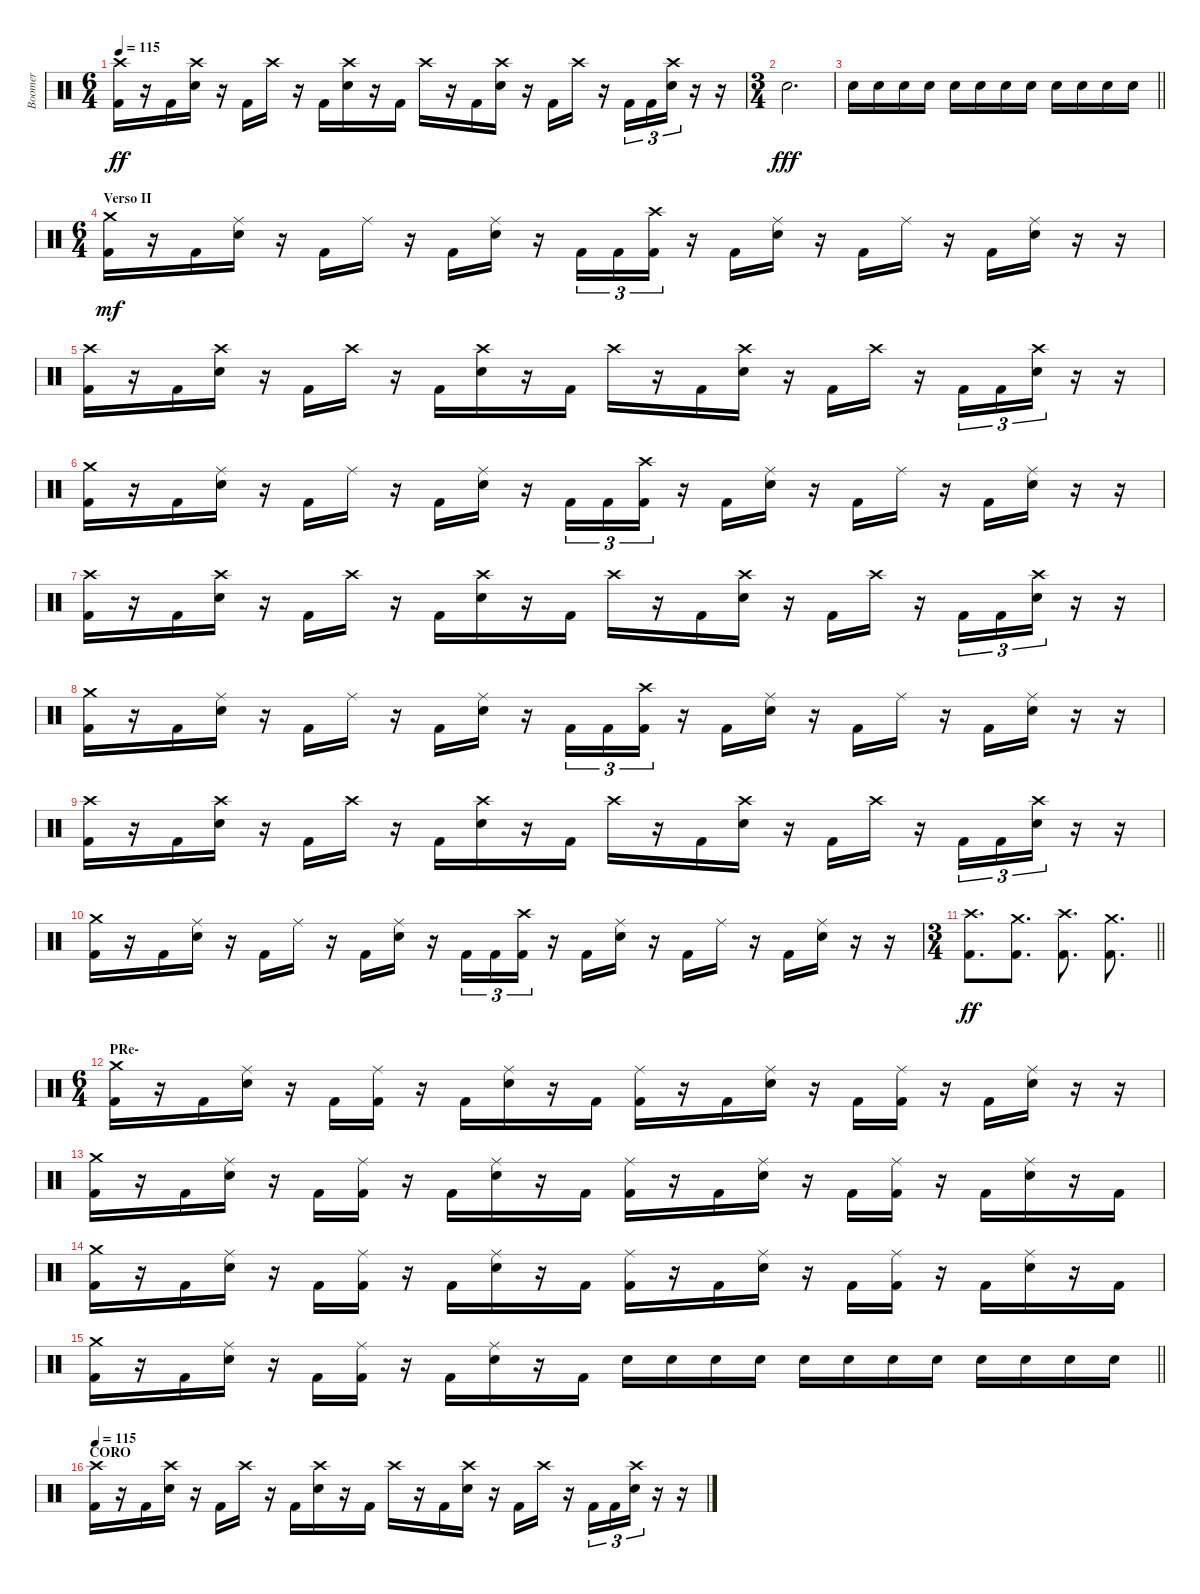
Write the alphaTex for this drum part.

\track ("Boomer" "Boomer") {instrument percussion}
\staff {score}
\articulation defaults
\ts (6 4)
\tempo 115
\clef neutral
\ks c
("Crash high (hit)" "Kick (hit) 2").16{dy ff} r.16 "Kick (hit) 2".16 ("Crash high (hit)" "Electric Snare (hit)").16 r.16 "Kick (hit) 2".16 "Crash high (hit)".16 r.16 "Kick (hit) 2".16 ("Crash high (hit)" "Electric Snare (hit)").16 r.16 "Kick (hit) 2".16 "Crash high (hit)".16 r.16 "Kick (hit) 2".16 ("Crash high (hit)" "Electric Snare (hit)").16 r.16 "Kick (hit) 2".16 "Crash high (hit)".16 r.16 "Kick (hit) 2".16{tu (3 2)} "Kick (hit) 2".16{tu (3 2)} ("Crash high (hit)" "Electric Snare (hit)").16{tu (3 2)} r.16 r.16 |
\ts (3 4)
"Electric Snare (hit)".2{d dy fff} |
\barLineRight lightlight "Electric Snare (hit)".16 "Electric Snare (hit)".16 "Electric Snare (hit)".16 "Electric Snare (hit)".16 "Electric Snare (hit)".16 "Electric Snare (hit)".16 "Electric Snare (hit)".16 "Electric Snare (hit)".16 "Electric Snare (hit)".16 "Electric Snare (hit)".16 "Electric Snare (hit)".16 "Electric Snare (hit)".16
|
\ts (6 4)
\section ("" "Verso II")
("Crash medium (hit)" "Kick (hit) 2").16{dy mf} r.16 "Kick (hit) 2".16 ("Ride (middle)" "Electric Snare (hit)").16 r.16 "Kick (hit) 2".16 "Ride (middle)".16 r.16 "Kick (hit) 2".16 ("Ride (middle)" "Electric Snare (hit)").16 r.16 "Kick (hit) 2".16{tu (3 2)} "Kick (hit) 2".16{tu (3 2)} ("Crash high (hit)" "Kick (hit) 2").16{tu (3 2)} r.16 "Kick (hit) 2".16 ("Ride (middle)" "Electric Snare (hit)").16 r.16 "Kick (hit) 2".16 "Ride (middle)".16 r.16 "Kick (hit) 2".16 ("Ride (middle)" "Electric Snare (hit)").16 r.16 r.16 |
("Crash high (hit)" "Kick (hit) 2").16 r.16 "Kick (hit) 2".16 ("Crash high (hit)" "Electric Snare (hit)").16 r.16 "Kick (hit) 2".16 "Crash high (hit)".16 r.16 "Kick (hit) 2".16 ("Crash high (hit)" "Electric Snare (hit)").16 r.16 "Kick (hit) 2".16 "Crash high (hit)".16 r.16 "Kick (hit) 2".16 ("Crash high (hit)" "Electric Snare (hit)").16 r.16 "Kick (hit) 2".16 "Crash high (hit)".16 r.16 "Kick (hit) 2".16{tu (3 2)} "Kick (hit) 2".16{tu (3 2)} ("Crash high (hit)" "Electric Snare (hit)").16{tu (3 2)} r.16 r.16 |
("Crash medium (hit)" "Kick (hit) 2").16 r.16 "Kick (hit) 2".16 ("Ride (middle)" "Electric Snare (hit)").16 r.16 "Kick (hit) 2".16 "Ride (middle)".16 r.16 "Kick (hit) 2".16 ("Ride (middle)" "Electric Snare (hit)").16 r.16 "Kick (hit) 2".16{tu (3 2)} "Kick (hit) 2".16{tu (3 2)} ("Crash high (hit)" "Kick (hit) 2").16{tu (3 2)} r.16 "Kick (hit) 2".16 ("Ride (middle)" "Electric Snare (hit)").16 r.16 "Kick (hit) 2".16 "Ride (middle)".16 r.16 "Kick (hit) 2".16 ("Ride (middle)" "Electric Snare (hit)").16 r.16 r.16 |
("Crash high (hit)" "Kick (hit) 2").16 r.16 "Kick (hit) 2".16 ("Crash high (hit)" "Electric Snare (hit)").16 r.16 "Kick (hit) 2".16 "Crash high (hit)".16 r.16 "Kick (hit) 2".16 ("Crash high (hit)" "Electric Snare (hit)").16 r.16 "Kick (hit) 2".16 "Crash high (hit)".16 r.16 "Kick (hit) 2".16 ("Crash high (hit)" "Electric Snare (hit)").16 r.16 "Kick (hit) 2".16 "Crash high (hit)".16 r.16 "Kick (hit) 2".16{tu (3 2)} "Kick (hit) 2".16{tu (3 2)} ("Crash high (hit)" "Electric Snare (hit)").16{tu (3 2)} r.16 r.16 |
("Crash medium (hit)" "Kick (hit) 2").16 r.16 "Kick (hit) 2".16 ("Ride (middle)" "Electric Snare (hit)").16 r.16 "Kick (hit) 2".16 "Ride (middle)".16 r.16 "Kick (hit) 2".16 ("Ride (middle)" "Electric Snare (hit)").16 r.16 "Kick (hit) 2".16{tu (3 2)} "Kick (hit) 2".16{tu (3 2)} ("Crash high (hit)" "Kick (hit) 2").16{tu (3 2)} r.16 "Kick (hit) 2".16 ("Ride (middle)" "Electric Snare (hit)").16 r.16 "Kick (hit) 2".16 "Ride (middle)".16 r.16 "Kick (hit) 2".16 ("Ride (middle)" "Electric Snare (hit)").16 r.16 r.16 |
("Crash high (hit)" "Kick (hit) 2").16 r.16 "Kick (hit) 2".16 ("Crash high (hit)" "Electric Snare (hit)").16 r.16 "Kick (hit) 2".16 "Crash high (hit)".16 r.16 "Kick (hit) 2".16 ("Crash high (hit)" "Electric Snare (hit)").16 r.16 "Kick (hit) 2".16 "Crash high (hit)".16 r.16 "Kick (hit) 2".16 ("Crash high (hit)" "Electric Snare (hit)").16 r.16 "Kick (hit) 2".16 "Crash high (hit)".16 r.16 "Kick (hit) 2".16{tu (3 2)} "Kick (hit) 2".16{tu (3 2)} ("Crash high (hit)" "Electric Snare (hit)").16{tu (3 2)} r.16 r.16 |
("Crash medium (hit)" "Kick (hit) 2").16 r.16 "Kick (hit) 2".16 ("Ride (middle)" "Electric Snare (hit)").16 r.16 "Kick (hit) 2".16 "Ride (middle)".16 r.16 "Kick (hit) 2".16 ("Ride (middle)" "Electric Snare (hit)").16 r.16 "Kick (hit) 2".16{tu (3 2)} "Kick (hit) 2".16{tu (3 2)} ("Crash high (hit)" "Kick (hit) 2").16{tu (3 2)} r.16 "Kick (hit) 2".16 ("Ride (middle)" "Electric Snare (hit)").16 r.16 "Kick (hit) 2".16 "Ride (middle)".16 r.16 "Kick (hit) 2".16 ("Ride (middle)" "Electric Snare (hit)").16 r.16 r.16 |
\ts (3 4)
\barLineRight lightlight
("Crash high (hit)" "Kick (hit) 2").8{d dy ff} ("Crash medium (hit)" "Kick (hit) 2").8{d} ("Crash high (hit)" "Kick (hit) 2").8{d} ("Crash medium (hit)" "Kick (hit) 2").8{d} |
\ts (6 4)
\section ("" "PRe-")
("Crash medium (hit)" "Kick (hit) 2").16 r.16 "Kick (hit) 2".16 ("Ride (middle)" "Electric Snare (hit)").16 r.16 "Kick (hit) 2".16 ("Ride (middle)" "Kick (hit) 2").16 r.16 "Kick (hit) 2".16 ("Ride (middle)" "Electric Snare (hit)").16 r.16 "Kick (hit) 2".16 ("Ride (middle)" "Kick (hit) 2").16 r.16 "Kick (hit) 2".16 ("Ride (middle)" "Electric Snare (hit)").16 r.16 "Kick (hit) 2".16 ("Ride (middle)" "Kick (hit) 2").16 r.16 "Kick (hit) 2".16 ("Ride (middle)" "Electric Snare (hit)").16 r.16 r.16 |
("Crash medium (hit)" "Kick (hit) 2").16 r.16 "Kick (hit) 2".16 ("Ride (middle)" "Electric Snare (hit)").16 r.16 "Kick (hit) 2".16 ("Ride (middle)" "Kick (hit) 2").16 r.16 "Kick (hit) 2".16 ("Ride (middle)" "Electric Snare (hit)").16 r.16 "Kick (hit) 2".16 ("Ride (middle)" "Kick (hit) 2").16 r.16 "Kick (hit) 2".16 ("Ride (middle)" "Electric Snare (hit)").16 r.16 "Kick (hit) 2".16 ("Ride (middle)" "Kick (hit) 2").16 r.16 "Kick (hit) 2".16 ("Ride (middle)" "Electric Snare (hit)").16 r.16 "Kick (hit) 2".16 |
("Crash medium (hit)" "Kick (hit) 2").16 r.16 "Kick (hit) 2".16 ("Ride (middle)" "Electric Snare (hit)").16 r.16 "Kick (hit) 2".16 ("Ride (middle)" "Kick (hit) 2").16 r.16 "Kick (hit) 2".16 ("Ride (middle)" "Electric Snare (hit)").16 r.16 "Kick (hit) 2".16 ("Ride (middle)" "Kick (hit) 2").16 r.16 "Kick (hit) 2".16 ("Ride (middle)" "Electric Snare (hit)").16 r.16 "Kick (hit) 2".16 ("Ride (middle)" "Kick (hit) 2").16 r.16 "Kick (hit) 2".16 ("Ride (middle)" "Electric Snare (hit)").16 r.16 "Kick (hit) 2".16 |
\barLineRight lightlight
("Crash medium (hit)" "Kick (hit) 2").16 r.16 "Kick (hit) 2".16 ("Ride (middle)" "Electric Snare (hit)").16 r.16 "Kick (hit) 2".16 ("Ride (middle)" "Kick (hit) 2").16 r.16 "Kick (hit) 2".16 ("Ride (middle)" "Electric Snare (hit)").16 r.16 "Kick (hit) 2".16 "Electric Snare (hit)".16 "Electric Snare (hit)".16 "Electric Snare (hit)".16 "Electric Snare (hit)".16 "Electric Snare (hit)".16 "Electric Snare (hit)".16 "Electric Snare (hit)".16 "Electric Snare (hit)".16 "Electric Snare (hit)".16 "Electric Snare (hit)".16 "Electric Snare (hit)".16 "Electric Snare (hit)".16 |
\section ("" "CORO")
\tempo 115
("Crash high (hit)" "Kick (hit) 2").16 r.16 "Kick (hit) 2".16 ("Crash high (hit)" "Electric Snare (hit)").16 r.16 "Kick (hit) 2".16 "Crash high (hit)".16 r.16 "Kick (hit) 2".16 ("Crash high (hit)" "Electric Snare (hit)").16 r.16 "Kick (hit) 2".16 "Crash high (hit)".16 r.16 "Kick (hit) 2".16 ("Crash high (hit)" "Electric Snare (hit)").16 r.16 "Kick (hit) 2".16 "Crash high (hit)".16 r.16 "Kick (hit) 2".16{tu (3 2)} "Kick (hit) 2".16{tu (3 2)} ("Crash high (hit)" "Electric Snare (hit)").16{tu (3 2)} r.16 r.16
